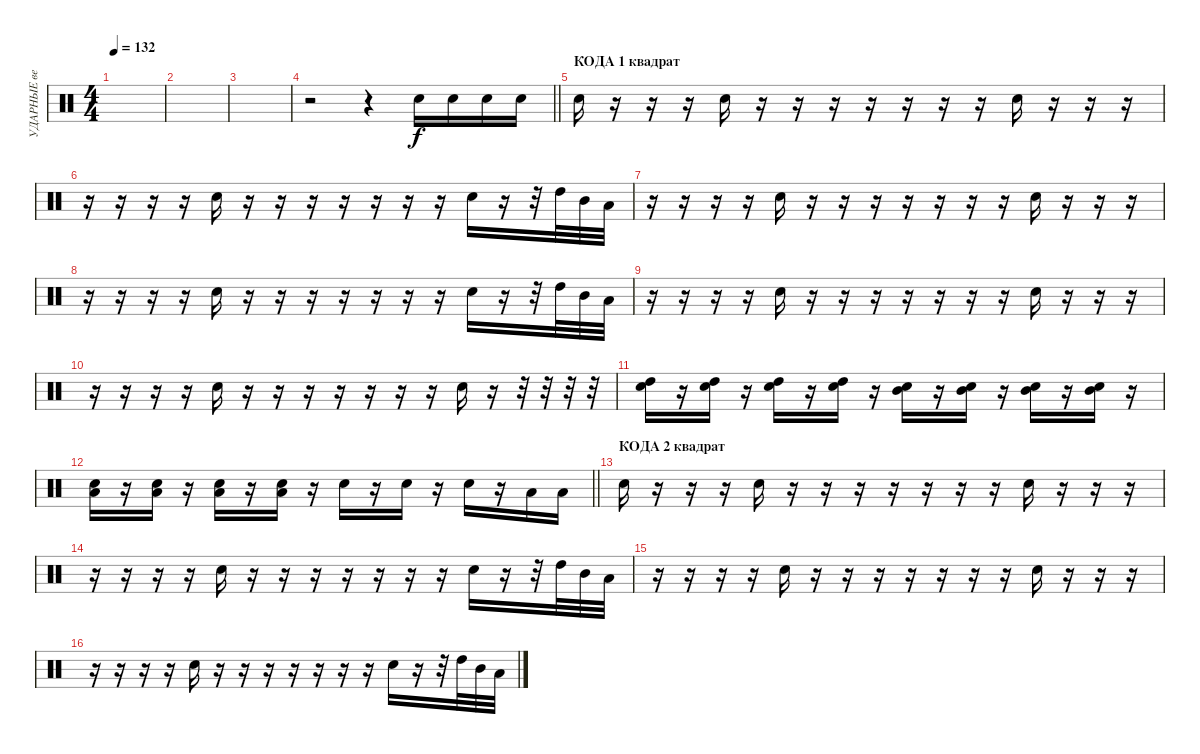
\track ("УДАРНЫЕ ведущий" "УДАРНЫЕ ве") {instrument percussion}
\staff {score}
\articulation defaults
\ts (4 4)
\tempo 132
\clef neutral
\ks c
|
|
|
\barLineRight lightlight
r.2 r.4 "Snare (hit) 2".16 "Snare (hit) 2".16 "Snare (hit) 2".16 "Snare (hit) 2".16 |
\section ("" "КОДА 1 квадрат")
"Snare (hit) 2".16 r.16 r.16 r.16 "Snare (hit) 2".16 r.16 r.16 r.16 r.16 r.16 r.16 r.16 "Snare (hit) 2".16 r.16 r.16 r.16 |
r.16 r.16 r.16 r.16 "Snare (hit) 2".16 r.16 r.16 r.16 r.16 r.16 r.16 r.16 "Snare (hit) 2".16 r.16 r.32 "High Tom (hit)".32 "Mid Tom (hit)".32 "Low Tom (hit)".32 |
r.16 r.16 r.16 r.16 "Snare (hit) 2".16 r.16 r.16 r.16 r.16 r.16 r.16 r.16 "Snare (hit) 2".16 r.16 r.16 r.16 |
r.16 r.16 r.16 r.16 "Snare (hit) 2".16 r.16 r.16 r.16 r.16 r.16 r.16 r.16 "Snare (hit) 2".16 r.16 r.32 "High Tom (hit)".32 "Mid Tom (hit)".32 "Low Tom (hit)".32 |
r.16 r.16 r.16 r.16 "Snare (hit) 2".16 r.16 r.16 r.16 r.16 r.16 r.16 r.16 "Snare (hit) 2".16 r.16 r.16 r.16 |
r.16 r.16 r.16 r.16 "Snare (hit) 2".16 r.16 r.16 r.16 r.16 r.16 r.16 r.16 "Snare (hit) 2".16 r.16 r.32 r.32 r.32 r.32 |
("High Tom (hit)" "Snare (hit) 2").16 r.16 ("High Tom (hit)" "Snare (hit) 2").16 r.16 ("High Tom (hit)" "Snare (hit) 2").16 r.16 ("High Tom (hit)" "Snare (hit) 2").16 r.16 ("Mid Tom (hit)" "Snare (hit) 2").16 r.16 ("Mid Tom (hit)" "Snare (hit) 2").16 r.16 ("Mid Tom (hit)" "Snare (hit) 2").16 r.16 ("Mid Tom (hit)" "Snare (hit) 2").16 r.16 |
\barLineRight lightlight
("Low Tom (hit)" "Snare (hit) 2").16 r.16 ("Low Tom (hit)" "Snare (hit) 2").16 r.16 ("Low Tom (hit)" "Snare (hit) 2").16 r.16 ("Low Tom (hit)" "Snare (hit) 2").16 r.16 "Snare (hit) 2".16 r.16 "Snare (hit) 2".16 r.16 "Snare (hit) 2".16 r.16 "Low Tom (hit)".16 "Low Tom (hit)".16 |
\section ("" "КОДА 2 квадрат")
"Snare (hit) 2".16 r.16 r.16 r.16 "Snare (hit) 2".16 r.16 r.16 r.16 r.16 r.16 r.16 r.16 "Snare (hit) 2".16 r.16 r.16 r.16 |
r.16 r.16 r.16 r.16 "Snare (hit) 2".16 r.16 r.16 r.16 r.16 r.16 r.16 r.16 "Snare (hit) 2".16 r.16 r.32 "High Tom (hit)".32 "Mid Tom (hit)".32 "Low Tom (hit)".32 |
r.16 r.16 r.16 r.16 "Snare (hit) 2".16 r.16 r.16 r.16 r.16 r.16 r.16 r.16 "Snare (hit) 2".16 r.16 r.16 r.16 |
r.16 r.16 r.16 r.16 "Snare (hit) 2".16 r.16 r.16 r.16 r.16 r.16 r.16 r.16 "Snare (hit) 2".16 r.16 r.32 "High Tom (hit)".32 "Mid Tom (hit)".32 "Low Tom (hit)".32
